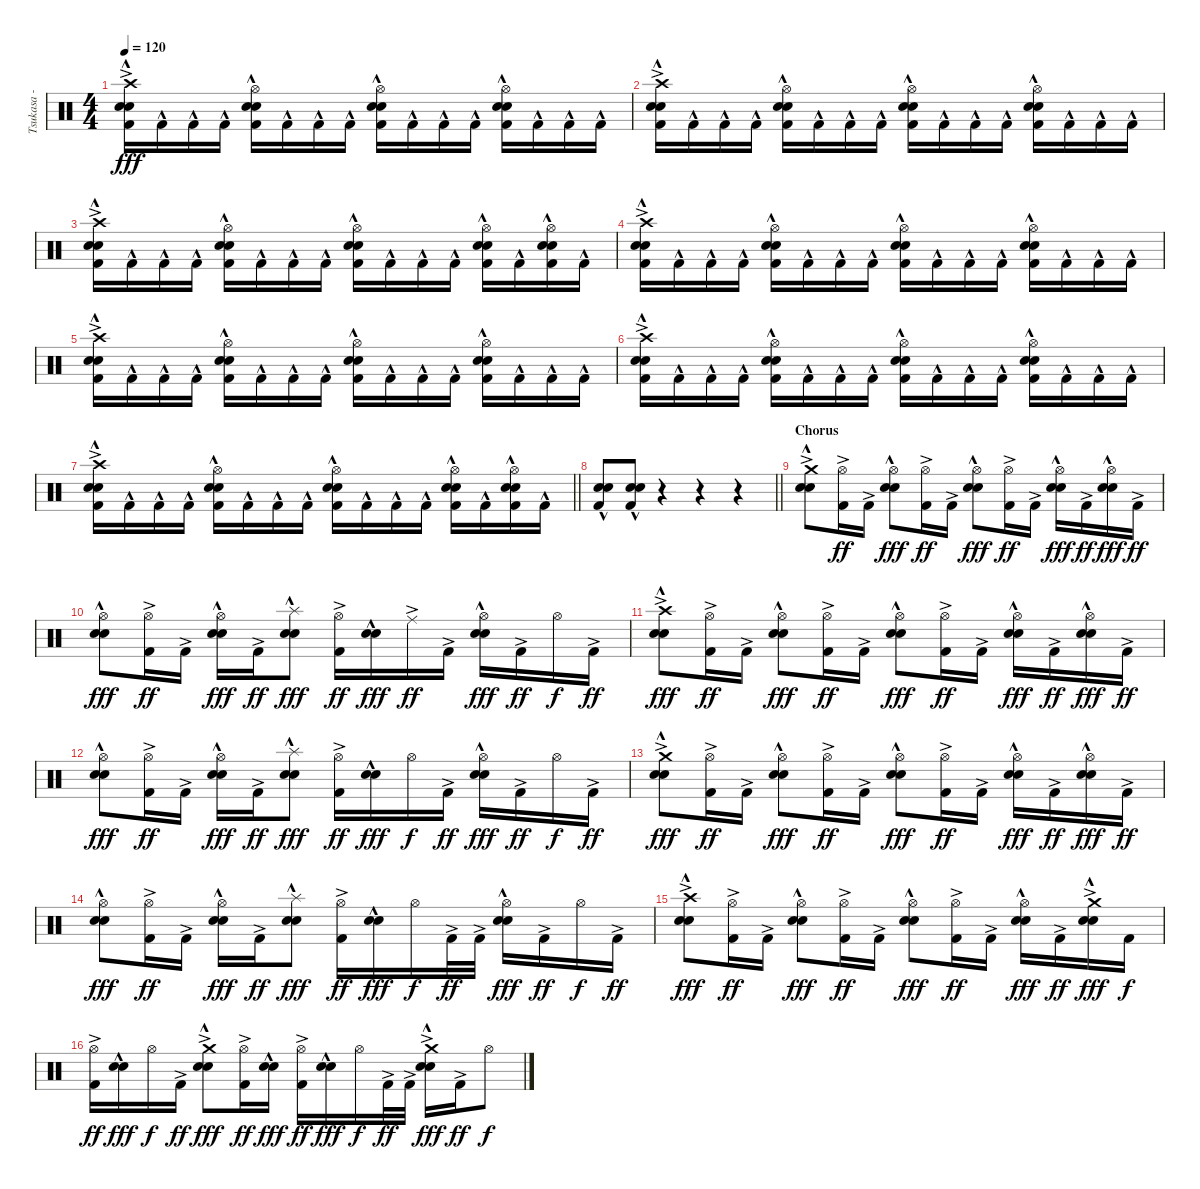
\track ("Tsukasa - Drums" "Tsukasa - ") {instrument percussion}
\staff {score}
\articulation defaults
\ts (4 4)
\tempo 120
\clef neutral
\ks c
("Crash high (hit)"{ac} "Electric Snare (hit)"{hac} "Snare (hit) 2"{hac} "Kick (hit) 2"{hac}).16{dy fff} "Kick (hit) 2"{hac}.16 "Kick (hit) 2"{hac}.16 "Kick (hit) 2"{hac}.16 ("Hi-Hat (open)" "Electric Snare (hit)"{hac} "Snare (hit) 2"{hac} "Kick (hit) 2"{hac}).16 "Kick (hit) 2"{hac}.16 "Kick (hit) 2"{hac}.16 "Kick (hit) 2"{hac}.16 ("Hi-Hat (open)" "Electric Snare (hit)"{hac} "Snare (hit) 2"{hac} "Kick (hit) 2"{hac}).16 "Kick (hit) 2"{hac}.16 "Kick (hit) 2"{hac}.16 "Kick (hit) 2"{hac}.16 ("Hi-Hat (open)" "Electric Snare (hit)"{hac} "Snare (hit) 2"{hac} "Kick (hit) 2"{hac}).16 "Kick (hit) 2"{hac}.16 "Kick (hit) 2"{hac}.16 "Kick (hit) 2"{hac}.16 |
("Crash high (hit)"{ac} "Electric Snare (hit)"{hac} "Snare (hit) 2"{hac} "Kick (hit) 2"{hac}).16 "Kick (hit) 2"{hac}.16 "Kick (hit) 2"{hac}.16 "Kick (hit) 2"{hac}.16 ("Hi-Hat (open)" "Electric Snare (hit)"{hac} "Snare (hit) 2"{hac} "Kick (hit) 2"{hac}).16 "Kick (hit) 2"{hac}.16 "Kick (hit) 2"{hac}.16 "Kick (hit) 2"{hac}.16 ("Hi-Hat (open)" "Electric Snare (hit)"{hac} "Snare (hit) 2"{hac} "Kick (hit) 2"{hac}).16 "Kick (hit) 2"{hac}.16 "Kick (hit) 2"{hac}.16 "Kick (hit) 2"{hac}.16 ("Hi-Hat (open)" "Electric Snare (hit)"{hac} "Snare (hit) 2"{hac} "Kick (hit) 2"{hac}).16 "Kick (hit) 2"{hac}.16 "Kick (hit) 2"{hac}.16 "Kick (hit) 2"{hac}.16 |
("Crash high (hit)"{ac} "Electric Snare (hit)"{hac} "Snare (hit) 2"{hac} "Kick (hit) 2"{hac}).16 "Kick (hit) 2"{hac}.16 "Kick (hit) 2"{hac}.16 "Kick (hit) 2"{hac}.16 ("Hi-Hat (open)" "Electric Snare (hit)"{hac} "Snare (hit) 2"{hac} "Kick (hit) 2"{hac}).16 "Kick (hit) 2"{hac}.16 "Kick (hit) 2"{hac}.16 "Kick (hit) 2"{hac}.16 ("Hi-Hat (open)" "Electric Snare (hit)"{hac} "Snare (hit) 2"{hac} "Kick (hit) 2"{hac}).16 "Kick (hit) 2"{hac}.16 "Kick (hit) 2"{hac}.16 "Kick (hit) 2"{hac}.16 ("Hi-Hat (open)" "Electric Snare (hit)"{hac} "Snare (hit) 2"{hac} "Kick (hit) 2"{hac}).16 "Kick (hit) 2"{hac}.16 ("Hi-Hat (open)" "Electric Snare (hit)"{hac} "Snare (hit) 2"{hac} "Kick (hit) 2"{hac}).16 "Kick (hit) 2"{hac}.16 |
("Crash high (hit)"{ac} "Electric Snare (hit)"{hac} "Snare (hit) 2"{hac} "Kick (hit) 2"{hac}).16 "Kick (hit) 2"{hac}.16 "Kick (hit) 2"{hac}.16 "Kick (hit) 2"{hac}.16 ("Hi-Hat (open)" "Electric Snare (hit)"{hac} "Snare (hit) 2"{hac} "Kick (hit) 2"{hac}).16 "Kick (hit) 2"{hac}.16 "Kick (hit) 2"{hac}.16 "Kick (hit) 2"{hac}.16 ("Hi-Hat (open)" "Electric Snare (hit)"{hac} "Snare (hit) 2"{hac} "Kick (hit) 2"{hac}).16 "Kick (hit) 2"{hac}.16 "Kick (hit) 2"{hac}.16 "Kick (hit) 2"{hac}.16 ("Hi-Hat (open)" "Electric Snare (hit)"{hac} "Snare (hit) 2"{hac} "Kick (hit) 2"{hac}).16 "Kick (hit) 2"{hac}.16 "Kick (hit) 2"{hac}.16 "Kick (hit) 2"{hac}.16 |
("Crash high (hit)"{ac} "Electric Snare (hit)"{hac} "Snare (hit) 2"{hac} "Kick (hit) 2"{hac}).16 "Kick (hit) 2"{hac}.16 "Kick (hit) 2"{hac}.16 "Kick (hit) 2"{hac}.16 ("Hi-Hat (open)" "Electric Snare (hit)"{hac} "Snare (hit) 2"{hac} "Kick (hit) 2"{hac}).16 "Kick (hit) 2"{hac}.16 "Kick (hit) 2"{hac}.16 "Kick (hit) 2"{hac}.16 ("Hi-Hat (open)" "Electric Snare (hit)"{hac} "Snare (hit) 2"{hac} "Kick (hit) 2"{hac}).16 "Kick (hit) 2"{hac}.16 "Kick (hit) 2"{hac}.16 "Kick (hit) 2"{hac}.16 ("Hi-Hat (open)" "Electric Snare (hit)"{hac} "Snare (hit) 2"{hac} "Kick (hit) 2"{hac}).16 "Kick (hit) 2"{hac}.16 "Kick (hit) 2"{hac}.16 "Kick (hit) 2"{hac}.16 |
("Crash high (hit)"{ac} "Electric Snare (hit)"{hac} "Snare (hit) 2"{hac} "Kick (hit) 2"{hac}).16 "Kick (hit) 2"{hac}.16 "Kick (hit) 2"{hac}.16 "Kick (hit) 2"{hac}.16 ("Hi-Hat (open)" "Electric Snare (hit)"{hac} "Snare (hit) 2"{hac} "Kick (hit) 2"{hac}).16 "Kick (hit) 2"{hac}.16 "Kick (hit) 2"{hac}.16 "Kick (hit) 2"{hac}.16 ("Hi-Hat (open)" "Electric Snare (hit)"{hac} "Snare (hit) 2"{hac} "Kick (hit) 2"{hac}).16 "Kick (hit) 2"{hac}.16 "Kick (hit) 2"{hac}.16 "Kick (hit) 2"{hac}.16 ("Hi-Hat (open)" "Electric Snare (hit)"{hac} "Snare (hit) 2"{hac} "Kick (hit) 2"{hac}).16 "Kick (hit) 2"{hac}.16 "Kick (hit) 2"{hac}.16 "Kick (hit) 2"{hac}.16 |
\barLineRight lightlight
("Crash high (hit)"{ac} "Electric Snare (hit)"{hac} "Snare (hit) 2"{hac} "Kick (hit) 2"{hac}).16 "Kick (hit) 2"{hac}.16 "Kick (hit) 2"{hac}.16 "Kick (hit) 2"{hac}.16 ("Hi-Hat (open)" "Electric Snare (hit)"{hac} "Snare (hit) 2"{hac} "Kick (hit) 2"{hac}).16 "Kick (hit) 2"{hac}.16 "Kick (hit) 2"{hac}.16 "Kick (hit) 2"{hac}.16 ("Hi-Hat (open)" "Electric Snare (hit)"{hac} "Snare (hit) 2"{hac} "Kick (hit) 2"{hac}).16 "Kick (hit) 2"{hac}.16 "Kick (hit) 2"{hac}.16 "Kick (hit) 2"{hac}.16 ("Hi-Hat (open)" "Electric Snare (hit)"{hac} "Snare (hit) 2"{hac} "Kick (hit) 2"{hac}).16 "Kick (hit) 2"{hac}.16 ("Hi-Hat (open)" "Electric Snare (hit)"{hac} "Snare (hit) 2"{hac} "Kick (hit) 2"{hac}).16 "Kick (hit) 2"{hac}.16 |
\barLineRight lightlight
("Electric Snare (hit)"{hac} "Snare (hit) 2"{hac} "Kick (hit) 2"{hac}).8 ("Electric Snare (hit)"{hac} "Snare (hit) 2"{hac} "Kick (hit) 2"{hac}).8 r.4 r.4 r.4 |
\section ("" "Chorus")
("Crash medium (hit)"{ac} "Electric Snare (hit)"{hac} "Snare (hit) 2"{hac}).8 ("Hi-Hat (open)" "Kick (hit) 2"{ac}).16{dy ff} "Kick (hit) 2"{ac}.16 ("Hi-Hat (open)" "Electric Snare (hit)"{hac} "Snare (hit) 2"{hac}).8{dy fff} ("Hi-Hat (open)" "Kick (hit) 2"{ac}).16{dy ff} "Kick (hit) 2"{ac}.16 ("Hi-Hat (open)" "Electric Snare (hit)"{hac} "Snare (hit) 2"{hac}).8{dy fff} ("Hi-Hat (open)" "Kick (hit) 2"{ac}).16{dy ff} "Kick (hit) 2"{ac}.16 ("Hi-Hat (open)" "Electric Snare (hit)"{hac} "Snare (hit) 2"{hac}).16{dy fff} "Kick (hit) 2"{ac}.16{dy ff} ("Hi-Hat (open)" "Electric Snare (hit)"{hac} "Snare (hit) 2"{hac}).16{dy fff} "Kick (hit) 2"{ac}.16{dy ff} |
("Hi-Hat (open)" "Electric Snare (hit)"{hac} "Snare (hit) 2"{hac}).8{dy fff} ("Hi-Hat (open)" "Kick (hit) 2"{ac}).16{dy ff} "Kick (hit) 2"{ac}.16 ("Hi-Hat (open)" "Electric Snare (hit)"{hac} "Snare (hit) 2"{hac}).16{dy fff} "Kick (hit) 2"{ac}.16{dy ff} ("Splash (hit)"{hac} "Electric Snare (hit)"{hac} "Snare (hit) 2"{hac}).8{dy fff} ("Hi-Hat (open)" "Kick (hit) 2"{ac}).16{dy ff} ("Electric Snare (hit)"{hac} "Snare (hit) 2"{hac}).16{dy fff} "Ride (middle)"{ac}.16{dy ff} "Kick (hit) 2"{ac}.16 ("Hi-Hat (open)" "Electric Snare (hit)"{hac} "Snare (hit) 2"{hac}).16{dy fff} "Kick (hit) 2"{ac}.16{dy ff} "Hi-Hat (open)".16{dy f} "Kick (hit) 2"{ac}.16{dy ff} |
("Crash high (hit)"{ac} "Electric Snare (hit)"{hac} "Snare (hit) 2"{hac}).8{dy fff} ("Hi-Hat (open)" "Kick (hit) 2"{ac}).16{dy ff} "Kick (hit) 2"{ac}.16 ("Hi-Hat (open)" "Electric Snare (hit)"{hac} "Snare (hit) 2"{hac}).8{dy fff} ("Hi-Hat (open)" "Kick (hit) 2"{ac}).16{dy ff} "Kick (hit) 2"{ac}.16 ("Hi-Hat (open)" "Electric Snare (hit)"{hac} "Snare (hit) 2"{hac}).8{dy fff} ("Hi-Hat (open)" "Kick (hit) 2"{ac}).16{dy ff} "Kick (hit) 2"{ac}.16 ("Hi-Hat (open)" "Electric Snare (hit)"{hac} "Snare (hit) 2"{hac}).16{dy fff} "Kick (hit) 2"{ac}.16{dy ff} ("Hi-Hat (open)" "Electric Snare (hit)"{hac} "Snare (hit) 2"{hac}).16{dy fff} "Kick (hit) 2"{ac}.16{dy ff} |
("Hi-Hat (open)" "Electric Snare (hit)"{hac} "Snare (hit) 2"{hac}).8{dy fff} ("Hi-Hat (open)" "Kick (hit) 2"{ac}).16{dy ff} "Kick (hit) 2"{ac}.16 ("Hi-Hat (open)" "Electric Snare (hit)"{hac} "Snare (hit) 2"{hac}).16{dy fff} "Kick (hit) 2"{ac}.16{dy ff} ("Splash (hit)"{hac} "Electric Snare (hit)"{hac} "Snare (hit) 2"{hac}).8{dy fff} ("Hi-Hat (open)" "Kick (hit) 2"{ac}).16{dy ff} ("Electric Snare (hit)"{hac} "Snare (hit) 2"{hac}).16{dy fff} "Hi-Hat (open)".16{dy f} "Kick (hit) 2"{ac}.16{dy ff} ("Hi-Hat (open)" "Electric Snare (hit)"{hac} "Snare (hit) 2"{hac}).16{dy fff} "Kick (hit) 2"{ac}.16{dy ff} "Hi-Hat (open)".16{dy f} "Kick (hit) 2"{ac}.16{dy ff} |
("Crash medium (hit)"{ac} "Electric Snare (hit)"{hac} "Snare (hit) 2"{hac}).8{dy fff} ("Hi-Hat (open)" "Kick (hit) 2"{ac}).16{dy ff} "Kick (hit) 2"{ac}.16 ("Hi-Hat (open)" "Electric Snare (hit)"{hac} "Snare (hit) 2"{hac}).8{dy fff} ("Hi-Hat (open)" "Kick (hit) 2"{ac}).16{dy ff} "Kick (hit) 2"{ac}.16 ("Hi-Hat (open)" "Electric Snare (hit)"{hac} "Snare (hit) 2"{hac}).8{dy fff} ("Hi-Hat (open)" "Kick (hit) 2"{ac}).16{dy ff} "Kick (hit) 2"{ac}.16 ("Hi-Hat (open)" "Electric Snare (hit)"{hac} "Snare (hit) 2"{hac}).16{dy fff} "Kick (hit) 2"{ac}.16{dy ff} ("Hi-Hat (open)" "Electric Snare (hit)"{hac} "Snare (hit) 2"{hac}).16{dy fff} "Kick (hit) 2"{ac}.16{dy ff} |
("Hi-Hat (open)" "Electric Snare (hit)"{hac} "Snare (hit) 2"{hac}).8{dy fff} ("Hi-Hat (open)" "Kick (hit) 2"{ac}).16{dy ff} "Kick (hit) 2"{ac}.16 ("Hi-Hat (open)" "Electric Snare (hit)"{hac} "Snare (hit) 2"{hac}).16{dy fff} "Kick (hit) 2"{ac}.16{dy ff} ("Splash (hit)"{hac} "Electric Snare (hit)"{hac} "Snare (hit) 2"{hac}).8{dy fff} ("Hi-Hat (open)" "Kick (hit) 2"{ac}).16{dy ff} ("Electric Snare (hit)"{hac} "Snare (hit) 2"{hac}).16{dy fff} "Hi-Hat (open)".16{dy f} "Kick (hit) 2"{ac}.32{dy ff} "Kick (hit) 2"{ac}.32 ("Hi-Hat (open)" "Electric Snare (hit)"{hac} "Snare (hit) 2"{hac}).16{dy fff} "Kick (hit) 2"{ac}.16{dy ff} "Hi-Hat (open)".16{dy f} "Kick (hit) 2"{ac}.16{dy ff} |
("Crash high (hit)"{ac} "Electric Snare (hit)"{hac} "Snare (hit) 2"{hac}).8{dy fff} ("Hi-Hat (open)" "Kick (hit) 2"{ac}).16{dy ff} "Kick (hit) 2"{ac}.16 ("Hi-Hat (open)" "Electric Snare (hit)"{hac} "Snare (hit) 2"{hac}).8{dy fff} ("Hi-Hat (open)" "Kick (hit) 2"{ac}).16{dy ff} "Kick (hit) 2"{ac}.16 ("Hi-Hat (open)" "Electric Snare (hit)"{hac} "Snare (hit) 2"{hac}).8{dy fff} ("Hi-Hat (open)" "Kick (hit) 2"{ac}).16{dy ff} "Kick (hit) 2"{ac}.16 ("Hi-Hat (open)" "Electric Snare (hit)"{hac} "Snare (hit) 2"{hac}).16{dy fff} "Kick (hit) 2"{ac}.16{dy ff} ("Crash medium (hit)"{ac} "Electric Snare (hit)"{hac} "Snare (hit) 2"{hac}).16{dy fff} "Kick (hit) 2".16{dy f} |
("Hi-Hat (open)" "Kick (hit) 2"{ac}).16{dy ff} ("Electric Snare (hit)"{hac} "Snare (hit) 2"{hac}).16{dy fff} "Hi-Hat (open)".16{dy f} "Kick (hit) 2"{ac}.16{dy ff} ("Crash medium (hit)"{ac} "Electric Snare (hit)"{hac} "Snare (hit) 2"{hac}).8{dy fff} ("Hi-Hat (open)" "Kick (hit) 2"{ac}).16{dy ff} ("Electric Snare (hit)"{hac} "Snare (hit) 2"{hac}).16{dy fff} ("Hi-Hat (open)" "Kick (hit) 2"{ac}).16{dy ff} ("Electric Snare (hit)"{hac} "Snare (hit) 2"{hac}).16{dy fff} "Hi-Hat (open)".16{dy f} "Kick (hit) 2"{ac}.32{dy ff} "Kick (hit) 2"{ac}.32 ("Crash medium (hit)"{ac} "Electric Snare (hit)"{hac} "Snare (hit) 2"{hac}).16{dy fff} "Kick (hit) 2"{ac}.16{dy ff} "Hi-Hat (open)".8{dy f}
